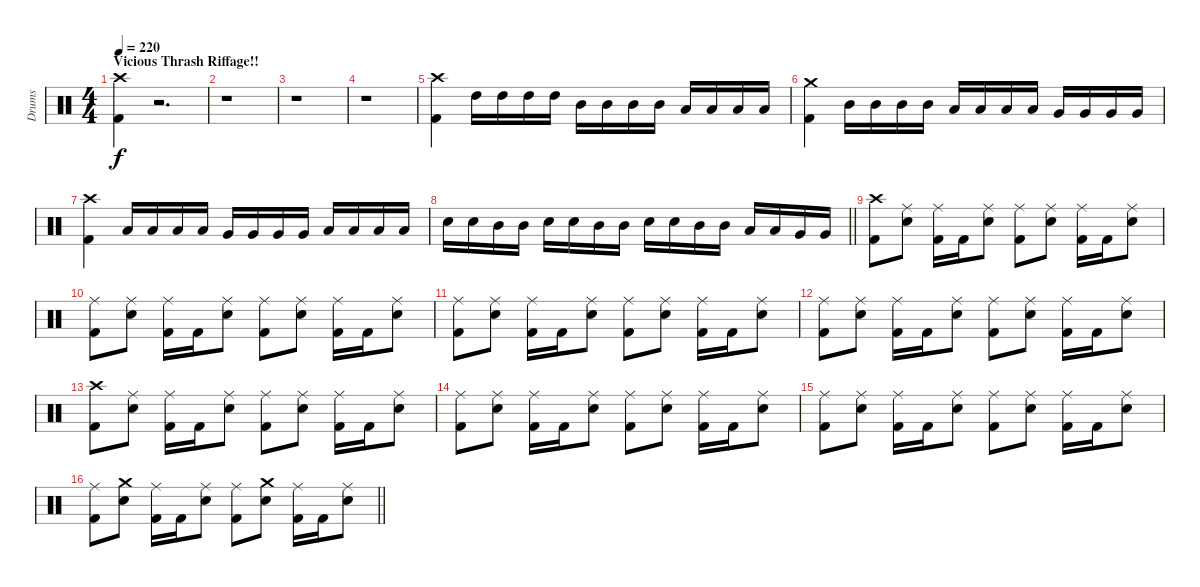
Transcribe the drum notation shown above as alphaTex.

\track ("Drums" "Drums") {instrument percussion}
\staff {score}
\articulation defaults
\ts (4 4)
\section ("" "Vicious Thrash Riffage!!")
\tempo 220
\clef neutral
\ks c
("Crash high (hit)" "Kick (hit) 2").4{dy f} r.2{d} |
r.1 |
r.1 |
r.1 |
("Crash high (hit)" "Kick (hit) 2").4 "High Tom (hit)".16 "High Tom (hit)".16 "High Tom (hit)".16 "High Tom (hit)".16 "Mid Tom (hit)".16 "Mid Tom (hit)".16 "Mid Tom (hit)".16 "Mid Tom (hit)".16 "Low Tom (hit)".16 "Low Tom (hit)".16 "Low Tom (hit)".16 "Low Tom (hit)".16 |
("Crash medium (hit)" "Kick (hit) 2").4 "Mid Tom (hit)".16 "Mid Tom (hit)".16 "Mid Tom (hit)".16 "Mid Tom (hit)".16 "Low Tom (hit)".16 "Low Tom (hit)".16 "Low Tom (hit)".16 "Low Tom (hit)".16 "Very Low Tom (hit)".16 "Very Low Tom (hit)".16 "Very Low Tom (hit)".16 "Very Low Tom (hit)".16 |
("Crash high (hit)" "Kick (hit) 2").4 "Low Tom (hit)".16 "Low Tom (hit)".16 "Low Tom (hit)".16 "Low Tom (hit)".16 "Very Low Tom (hit)".16 "Very Low Tom (hit)".16 "Very Low Tom (hit)".16 "Very Low Tom (hit)".16 "Low Floor Tom (hit)".16 "Low Floor Tom (hit)".16 "Low Floor Tom (hit)".16 "Low Floor Tom (hit)".16 |
\barLineRight lightlight "Snare (hit) 2".16 "Snare (hit) 2".16 "Mid Tom (hit)".16 "Mid Tom (hit)".16 "Snare (hit) 2".16 "Snare (hit) 2".16 "Mid Tom (hit)".16 "Mid Tom (hit)".16 "Snare (hit) 2".16 "Snare (hit) 2".16 "Mid Tom (hit)".16 "Mid Tom (hit)".16 "Low Tom (hit)".16 "Low Tom (hit)".16 "Very Low Tom (hit)".16 "Very Low Tom (hit)".16
|
\section ("" "")
("Crash high (hit)" "Kick (hit) 2").8 ("Ride (middle)" "Snare (hit) 2").8 ("Ride (middle)" "Kick (hit) 2").16 "Kick (hit) 2".16 ("Ride (middle)" "Snare (hit) 2").8 ("Ride (middle)" "Kick (hit) 2").8 ("Ride (middle)" "Snare (hit) 2").8 ("Ride (middle)" "Kick (hit) 2").16 "Kick (hit) 2".16 ("Ride (middle)" "Snare (hit) 2").8 |
("Ride (middle)" "Kick (hit) 2").8 ("Ride (middle)" "Snare (hit) 2").8 ("Ride (middle)" "Kick (hit) 2").16 "Kick (hit) 2".16 ("Ride (middle)" "Snare (hit) 2").8 ("Ride (middle)" "Kick (hit) 2").8 ("Ride (middle)" "Snare (hit) 2").8 ("Ride (middle)" "Kick (hit) 2").16 "Kick (hit) 2".16 ("Ride (middle)" "Snare (hit) 2").8 |
("Ride (middle)" "Kick (hit) 2").8 ("Ride (middle)" "Snare (hit) 2").8 ("Ride (middle)" "Kick (hit) 2").16 "Kick (hit) 2".16 ("Ride (middle)" "Snare (hit) 2").8 ("Ride (middle)" "Kick (hit) 2").8 ("Ride (middle)" "Snare (hit) 2").8 ("Ride (middle)" "Kick (hit) 2").16 "Kick (hit) 2".16 ("Ride (middle)" "Snare (hit) 2").8 |
("Ride (middle)" "Kick (hit) 2").8 ("Ride (middle)" "Snare (hit) 2").8 ("Ride (middle)" "Kick (hit) 2").16 "Kick (hit) 2".16 ("Ride (middle)" "Snare (hit) 2").8 ("Ride (middle)" "Kick (hit) 2").8 ("Ride (middle)" "Snare (hit) 2").8 ("Ride (middle)" "Kick (hit) 2").16 "Kick (hit) 2".16 ("Ride (middle)" "Snare (hit) 2").8 |
("Crash high (hit)" "Kick (hit) 2").8 ("Ride (middle)" "Snare (hit) 2").8 ("Ride (middle)" "Kick (hit) 2").16 "Kick (hit) 2".16 ("Ride (middle)" "Snare (hit) 2").8 ("Ride (middle)" "Kick (hit) 2").8 ("Ride (middle)" "Snare (hit) 2").8 ("Ride (middle)" "Kick (hit) 2").16 "Kick (hit) 2".16 ("Ride (middle)" "Snare (hit) 2").8 |
("Ride (middle)" "Kick (hit) 2").8 ("Ride (middle)" "Snare (hit) 2").8 ("Ride (middle)" "Kick (hit) 2").16 "Kick (hit) 2".16 ("Ride (middle)" "Snare (hit) 2").8 ("Ride (middle)" "Kick (hit) 2").8 ("Ride (middle)" "Snare (hit) 2").8 ("Ride (middle)" "Kick (hit) 2").16 "Kick (hit) 2".16 ("Ride (middle)" "Snare (hit) 2").8 |
("Ride (middle)" "Kick (hit) 2").8 ("Ride (middle)" "Snare (hit) 2").8 ("Ride (middle)" "Kick (hit) 2").16 "Kick (hit) 2".16 ("Ride (middle)" "Snare (hit) 2").8 ("Ride (middle)" "Kick (hit) 2").8 ("Ride (middle)" "Snare (hit) 2").8 ("Ride (middle)" "Kick (hit) 2").16 "Kick (hit) 2".16 ("Ride (middle)" "Snare (hit) 2").8 |
\barLineRight lightlight
("Ride (middle)" "Kick (hit) 2").8 ("Crash medium (hit)" "Snare (hit) 2").8 ("Ride (middle)" "Kick (hit) 2").16 "Kick (hit) 2".16 ("Ride (middle)" "Snare (hit) 2").8 ("Ride (middle)" "Kick (hit) 2").8 ("Crash medium (hit)" "Snare (hit) 2").8 ("Ride (middle)" "Kick (hit) 2").16 "Kick (hit) 2".16 ("Ride (middle)" "Snare (hit) 2").8
